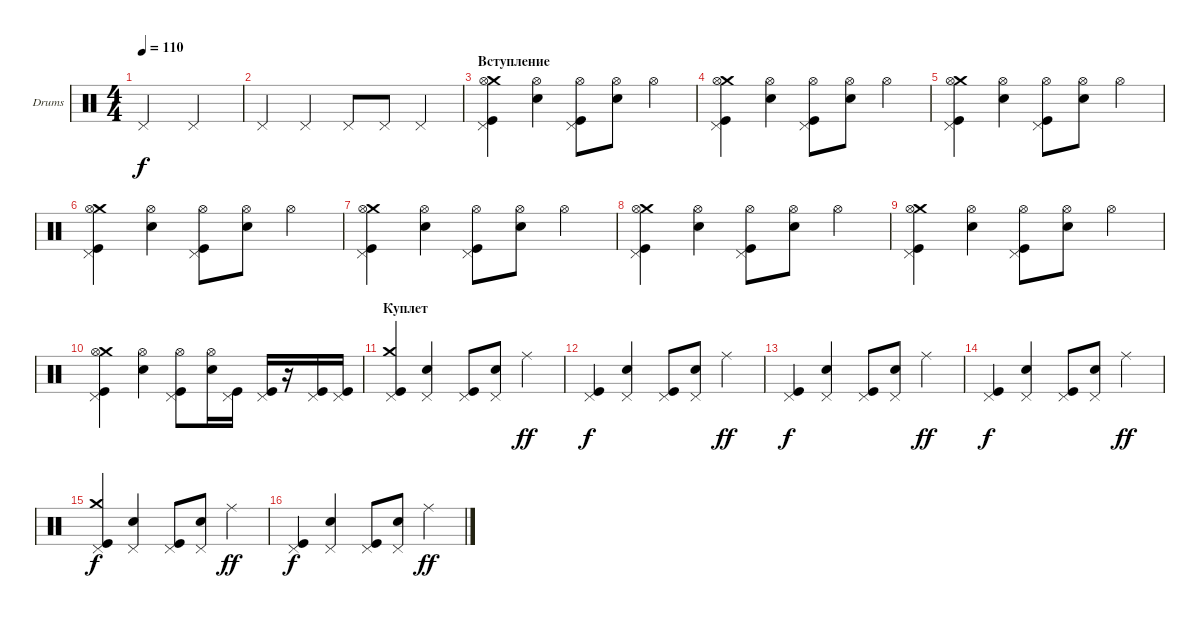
\defaultSystemsLayout 4
\bracketExtendMode groupsimilarinstruments
\firstSystemTrackNameOrientation horizontal
\otherSystemsTrackNameOrientation horizontal
\track ("Е. Кулаков" "Drums") {instrument percussion}
\staff {score}
\articulation defaults
\ts (4 4)
\tempo 110
\clef neutral
\ks c "Pedal Hi-Hat (hit)".2{dy f} "Pedal Hi-Hat (hit)".2
|
"Pedal Hi-Hat (hit)".4 "Pedal Hi-Hat (hit)".4 "Pedal Hi-Hat (hit)".8 "Pedal Hi-Hat (hit)".8 "Pedal Hi-Hat (hit)".4 |
\section ("" "Вступление")
("Crash medium (hit)" "Pedal Hi-Hat (hit)" "Kick (hit)" "Hi-Hat (open)").4 ("Snare (hit) 2" "Hi-Hat (open)").4 ("Pedal Hi-Hat (hit)" "Kick (hit)" "Hi-Hat (open)").8 ("Snare (hit) 2" "Hi-Hat (open)").8 "Hi-Hat (open)".4 |
("Crash medium (hit)" "Pedal Hi-Hat (hit)" "Kick (hit)" "Hi-Hat (open)").4 ("Snare (hit) 2" "Hi-Hat (open)").4 ("Pedal Hi-Hat (hit)" "Kick (hit)" "Hi-Hat (open)").8 ("Snare (hit) 2" "Hi-Hat (open)").8 "Hi-Hat (open)".4 |
("Crash medium (hit)" "Pedal Hi-Hat (hit)" "Kick (hit)" "Hi-Hat (open)").4 ("Snare (hit) 2" "Hi-Hat (open)").4 ("Pedal Hi-Hat (hit)" "Kick (hit)" "Hi-Hat (open)").8 ("Snare (hit) 2" "Hi-Hat (open)").8 "Hi-Hat (open)".4 |
("Crash medium (hit)" "Pedal Hi-Hat (hit)" "Kick (hit)" "Hi-Hat (open)").4 ("Snare (hit) 2" "Hi-Hat (open)").4 ("Pedal Hi-Hat (hit)" "Kick (hit)" "Hi-Hat (open)").8 ("Snare (hit) 2" "Hi-Hat (open)").8 "Hi-Hat (open)".4 |
("Crash medium (hit)" "Pedal Hi-Hat (hit)" "Kick (hit)" "Hi-Hat (open)").4 ("Snare (hit) 2" "Hi-Hat (open)").4 ("Pedal Hi-Hat (hit)" "Kick (hit)" "Hi-Hat (open)").8 ("Snare (hit) 2" "Hi-Hat (open)").8 "Hi-Hat (open)".4 |
("Crash medium (hit)" "Pedal Hi-Hat (hit)" "Kick (hit)" "Hi-Hat (open)").4 ("Snare (hit) 2" "Hi-Hat (open)").4 ("Pedal Hi-Hat (hit)" "Kick (hit)" "Hi-Hat (open)").8 ("Snare (hit) 2" "Hi-Hat (open)").8 "Hi-Hat (open)".4 |
("Crash medium (hit)" "Pedal Hi-Hat (hit)" "Kick (hit)" "Hi-Hat (open)").4 ("Snare (hit) 2" "Hi-Hat (open)").4 ("Pedal Hi-Hat (hit)" "Kick (hit)" "Hi-Hat (open)").8 ("Snare (hit) 2" "Hi-Hat (open)").8 "Hi-Hat (open)".4 |
("Crash medium (hit)" "Pedal Hi-Hat (hit)" "Kick (hit)" "Hi-Hat (open)").4 ("Snare (hit) 2" "Hi-Hat (open)").4 ("Pedal Hi-Hat (hit)" "Kick (hit)" "Hi-Hat (open)").8 ("Snare (hit) 2" "Hi-Hat (open)").16 ("Pedal Hi-Hat (hit)" "Kick (hit)").16 ("Pedal Hi-Hat (hit)" "Kick (hit)").16 r.16 ("Pedal Hi-Hat (hit)" "Kick (hit)").16 ("Pedal Hi-Hat (hit)" "Kick (hit)").16 |
\section ("" "Куплет")
("Crash medium (hit)" "Pedal Hi-Hat (hit)" "Kick (hit)").4 ("Snare (hit) 2" "Pedal Hi-Hat (hit)").4 ("Pedal Hi-Hat (hit)" "Kick (hit)").8 ("Snare (hit) 2" "Pedal Hi-Hat (hit)").8 "Ride (middle)".4{dy ff} |
("Pedal Hi-Hat (hit)" "Kick (hit)").4{dy f} ("Snare (hit) 2" "Pedal Hi-Hat (hit)").4 ("Pedal Hi-Hat (hit)" "Kick (hit)").8 ("Snare (hit) 2" "Pedal Hi-Hat (hit)").8 "Ride (middle)".4{dy ff} |
("Pedal Hi-Hat (hit)" "Kick (hit)").4{dy f} ("Snare (hit) 2" "Pedal Hi-Hat (hit)").4 ("Pedal Hi-Hat (hit)" "Kick (hit)").8 ("Snare (hit) 2" "Pedal Hi-Hat (hit)").8 "Ride (middle)".4{dy ff} |
("Pedal Hi-Hat (hit)" "Kick (hit)").4{dy f} ("Snare (hit) 2" "Pedal Hi-Hat (hit)").4 ("Pedal Hi-Hat (hit)" "Kick (hit)").8 ("Snare (hit) 2" "Pedal Hi-Hat (hit)").8 "Ride (middle)".4{dy ff} |
("Crash medium (hit)" "Pedal Hi-Hat (hit)" "Kick (hit)").4{dy f} ("Snare (hit) 2" "Pedal Hi-Hat (hit)").4 ("Pedal Hi-Hat (hit)" "Kick (hit)").8 ("Snare (hit) 2" "Pedal Hi-Hat (hit)").8 "Ride (middle)".4{dy ff} |
("Pedal Hi-Hat (hit)" "Kick (hit)").4{dy f} ("Snare (hit) 2" "Pedal Hi-Hat (hit)").4 ("Pedal Hi-Hat (hit)" "Kick (hit)").8 ("Snare (hit) 2" "Pedal Hi-Hat (hit)").8 "Ride (middle)".4{dy ff}
